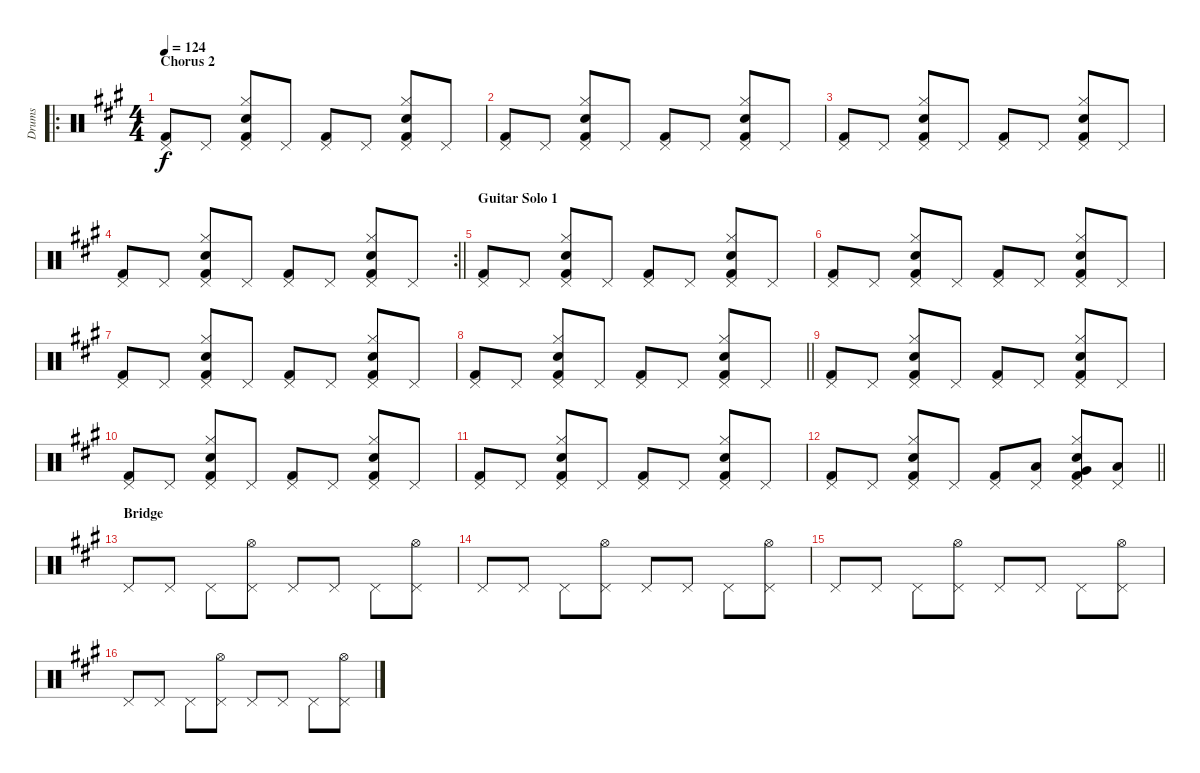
\track ("Drums" "Drums") {instrument percussion}
\staff {score}
\articulation defaults
\ro
\ts (4 4)
\section ("" "Chorus 2")
\tempo 124
\clef neutral
\ks a
("Pedal Hi-Hat (hit)" "Kick (hit) 2").8{dy f} "Pedal Hi-Hat (hit)".8 ("Hi-Hat (closed)" "Snare (hit) 2" "Pedal Hi-Hat (hit)" "Kick (hit) 2").8 "Pedal Hi-Hat (hit)".8 ("Pedal Hi-Hat (hit)" "Kick (hit) 2").8 "Pedal Hi-Hat (hit)".8 ("Hi-Hat (closed)" "Snare (hit) 2" "Pedal Hi-Hat (hit)" "Kick (hit) 2").8 "Pedal Hi-Hat (hit)".8 |
("Pedal Hi-Hat (hit)" "Kick (hit) 2").8 "Pedal Hi-Hat (hit)".8 ("Hi-Hat (closed)" "Snare (hit) 2" "Pedal Hi-Hat (hit)" "Kick (hit) 2").8 "Pedal Hi-Hat (hit)".8 ("Pedal Hi-Hat (hit)" "Kick (hit) 2").8 "Pedal Hi-Hat (hit)".8 ("Hi-Hat (closed)" "Snare (hit) 2" "Pedal Hi-Hat (hit)" "Kick (hit) 2").8 "Pedal Hi-Hat (hit)".8 |
("Pedal Hi-Hat (hit)" "Kick (hit) 2").8 "Pedal Hi-Hat (hit)".8 ("Hi-Hat (closed)" "Snare (hit) 2" "Pedal Hi-Hat (hit)" "Kick (hit) 2").8 "Pedal Hi-Hat (hit)".8 ("Pedal Hi-Hat (hit)" "Kick (hit) 2").8 "Pedal Hi-Hat (hit)".8 ("Hi-Hat (closed)" "Snare (hit) 2" "Pedal Hi-Hat (hit)" "Kick (hit) 2").8 "Pedal Hi-Hat (hit)".8 |
\rc 2
\barLineRight lightlight
("Pedal Hi-Hat (hit)" "Kick (hit) 2").8 "Pedal Hi-Hat (hit)".8 ("Hi-Hat (closed)" "Snare (hit) 2" "Pedal Hi-Hat (hit)" "Kick (hit) 2").8 "Pedal Hi-Hat (hit)".8 ("Pedal Hi-Hat (hit)" "Kick (hit) 2").8 "Pedal Hi-Hat (hit)".8 ("Hi-Hat (closed)" "Snare (hit) 2" "Pedal Hi-Hat (hit)" "Kick (hit) 2").8 "Pedal Hi-Hat (hit)".8 |
\section ("" "Guitar Solo 1")
("Pedal Hi-Hat (hit)" "Kick (hit) 2").8 "Pedal Hi-Hat (hit)".8 ("Hi-Hat (closed)" "Snare (hit) 2" "Pedal Hi-Hat (hit)" "Kick (hit) 2").8 "Pedal Hi-Hat (hit)".8 ("Pedal Hi-Hat (hit)" "Kick (hit) 2").8 "Pedal Hi-Hat (hit)".8 ("Hi-Hat (closed)" "Snare (hit) 2" "Pedal Hi-Hat (hit)" "Kick (hit) 2").8 "Pedal Hi-Hat (hit)".8 |
("Pedal Hi-Hat (hit)" "Kick (hit) 2").8 "Pedal Hi-Hat (hit)".8 ("Hi-Hat (closed)" "Snare (hit) 2" "Pedal Hi-Hat (hit)" "Kick (hit) 2").8 "Pedal Hi-Hat (hit)".8 ("Pedal Hi-Hat (hit)" "Kick (hit) 2").8 "Pedal Hi-Hat (hit)".8 ("Hi-Hat (closed)" "Snare (hit) 2" "Pedal Hi-Hat (hit)" "Kick (hit) 2").8 "Pedal Hi-Hat (hit)".8 |
("Pedal Hi-Hat (hit)" "Kick (hit) 2").8 "Pedal Hi-Hat (hit)".8 ("Hi-Hat (closed)" "Snare (hit) 2" "Pedal Hi-Hat (hit)" "Kick (hit) 2").8 "Pedal Hi-Hat (hit)".8 ("Pedal Hi-Hat (hit)" "Kick (hit) 2").8 "Pedal Hi-Hat (hit)".8 ("Hi-Hat (closed)" "Snare (hit) 2" "Pedal Hi-Hat (hit)" "Kick (hit) 2").8 "Pedal Hi-Hat (hit)".8 |
\barLineRight lightlight
("Pedal Hi-Hat (hit)" "Kick (hit) 2").8 "Pedal Hi-Hat (hit)".8 ("Hi-Hat (closed)" "Snare (hit) 2" "Pedal Hi-Hat (hit)" "Kick (hit) 2").8 "Pedal Hi-Hat (hit)".8 ("Pedal Hi-Hat (hit)" "Kick (hit) 2").8 "Pedal Hi-Hat (hit)".8 ("Hi-Hat (closed)" "Snare (hit) 2" "Pedal Hi-Hat (hit)" "Kick (hit) 2").8 "Pedal Hi-Hat (hit)".8 |
("Pedal Hi-Hat (hit)" "Kick (hit) 2").8 "Pedal Hi-Hat (hit)".8 ("Hi-Hat (closed)" "Snare (hit) 2" "Pedal Hi-Hat (hit)" "Kick (hit) 2").8 "Pedal Hi-Hat (hit)".8 ("Pedal Hi-Hat (hit)" "Kick (hit) 2").8 "Pedal Hi-Hat (hit)".8 ("Hi-Hat (closed)" "Snare (hit) 2" "Pedal Hi-Hat (hit)" "Kick (hit) 2").8 "Pedal Hi-Hat (hit)".8 |
("Pedal Hi-Hat (hit)" "Kick (hit) 2").8 "Pedal Hi-Hat (hit)".8 ("Hi-Hat (closed)" "Snare (hit) 2" "Pedal Hi-Hat (hit)" "Kick (hit) 2").8 "Pedal Hi-Hat (hit)".8 ("Pedal Hi-Hat (hit)" "Kick (hit) 2").8 "Pedal Hi-Hat (hit)".8 ("Hi-Hat (closed)" "Snare (hit) 2" "Pedal Hi-Hat (hit)" "Kick (hit) 2").8 "Pedal Hi-Hat (hit)".8 |
("Pedal Hi-Hat (hit)" "Kick (hit) 2").8 "Pedal Hi-Hat (hit)".8 ("Hi-Hat (closed)" "Snare (hit) 2" "Pedal Hi-Hat (hit)" "Kick (hit) 2").8 "Pedal Hi-Hat (hit)".8 ("Pedal Hi-Hat (hit)" "Kick (hit) 2").8 "Pedal Hi-Hat (hit)".8 ("Hi-Hat (closed)" "Snare (hit) 2" "Pedal Hi-Hat (hit)" "Kick (hit) 2").8 "Pedal Hi-Hat (hit)".8 |
\barLineRight lightlight
("Pedal Hi-Hat (hit)" "Kick (hit) 2").8 "Pedal Hi-Hat (hit)".8 ("Hi-Hat (closed)" "Snare (hit) 2" "Pedal Hi-Hat (hit)" "Kick (hit) 2").8 "Pedal Hi-Hat (hit)".8 ("Pedal Hi-Hat (hit)" "Kick (hit) 2").8 ("Pedal Hi-Hat (hit)" "Low Tom (hit)").8 ("Hi-Hat (closed)" "Snare (hit) 2" "Pedal Hi-Hat (hit)" "Kick (hit) 2" "Very Low Tom (hit)").8 ("Pedal Hi-Hat (hit)" "Low Floor Tom (hit)").8 |
\section ("" "Bridge")
"Pedal Hi-Hat (hit)".8 "Pedal Hi-Hat (hit)".8 "Pedal Hi-Hat (hit)".8 ("Hi-Hat (open)" "Pedal Hi-Hat (hit)").8 "Pedal Hi-Hat (hit)".8 "Pedal Hi-Hat (hit)".8 "Pedal Hi-Hat (hit)".8 ("Hi-Hat (open)" "Pedal Hi-Hat (hit)").8 |
"Pedal Hi-Hat (hit)".8 "Pedal Hi-Hat (hit)".8 "Pedal Hi-Hat (hit)".8 ("Hi-Hat (open)" "Pedal Hi-Hat (hit)").8 "Pedal Hi-Hat (hit)".8 "Pedal Hi-Hat (hit)".8 "Pedal Hi-Hat (hit)".8 ("Hi-Hat (open)" "Pedal Hi-Hat (hit)").8 |
"Pedal Hi-Hat (hit)".8 "Pedal Hi-Hat (hit)".8 "Pedal Hi-Hat (hit)".8 ("Hi-Hat (open)" "Pedal Hi-Hat (hit)").8 "Pedal Hi-Hat (hit)".8 "Pedal Hi-Hat (hit)".8 "Pedal Hi-Hat (hit)".8 ("Hi-Hat (open)" "Pedal Hi-Hat (hit)").8 |
"Pedal Hi-Hat (hit)".8 "Pedal Hi-Hat (hit)".8 "Pedal Hi-Hat (hit)".8 ("Hi-Hat (open)" "Pedal Hi-Hat (hit)").8 "Pedal Hi-Hat (hit)".8 "Pedal Hi-Hat (hit)".8 "Pedal Hi-Hat (hit)".8 ("Hi-Hat (open)" "Pedal Hi-Hat (hit)").8
